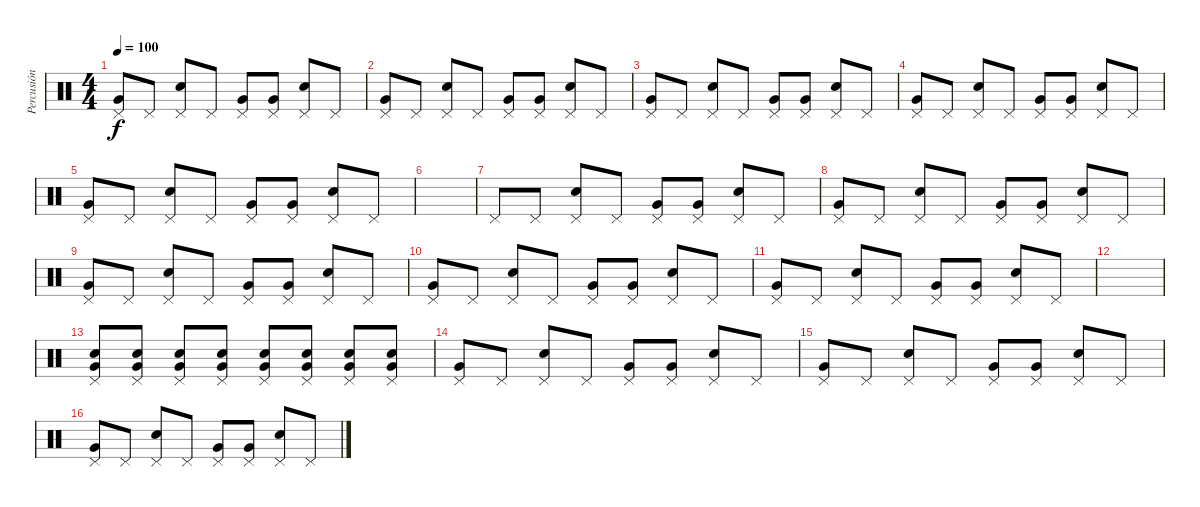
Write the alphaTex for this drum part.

\track ("Percusión" "Percusión") {instrument percussion}
\staff {score}
\articulation defaults
\ts (4 4)
\tempo 100
\clef neutral
\ks c
("Pedal Hi-Hat (hit)" "Very Low Tom (hit)").8{dy f} "Pedal Hi-Hat (hit)".8 ("Pedal Hi-Hat (hit)" "Snare (hit) 2").8 "Pedal Hi-Hat (hit)".8 ("Pedal Hi-Hat (hit)" "Very Low Tom (hit)").8 ("Pedal Hi-Hat (hit)" "Very Low Tom (hit)").8 ("Pedal Hi-Hat (hit)" "Snare (hit) 2").8 "Pedal Hi-Hat (hit)".8 |
("Pedal Hi-Hat (hit)" "Very Low Tom (hit)").8 "Pedal Hi-Hat (hit)".8 ("Pedal Hi-Hat (hit)" "Snare (hit) 2").8 "Pedal Hi-Hat (hit)".8 ("Pedal Hi-Hat (hit)" "Very Low Tom (hit)").8 ("Pedal Hi-Hat (hit)" "Very Low Tom (hit)").8 ("Pedal Hi-Hat (hit)" "Snare (hit) 2").8 "Pedal Hi-Hat (hit)".8 |
("Pedal Hi-Hat (hit)" "Very Low Tom (hit)").8 "Pedal Hi-Hat (hit)".8 ("Pedal Hi-Hat (hit)" "Snare (hit) 2").8 "Pedal Hi-Hat (hit)".8 ("Pedal Hi-Hat (hit)" "Very Low Tom (hit)").8 ("Pedal Hi-Hat (hit)" "Very Low Tom (hit)").8 ("Pedal Hi-Hat (hit)" "Snare (hit) 2").8 "Pedal Hi-Hat (hit)".8 |
("Pedal Hi-Hat (hit)" "Very Low Tom (hit)").8 "Pedal Hi-Hat (hit)".8 ("Pedal Hi-Hat (hit)" "Snare (hit) 2").8 "Pedal Hi-Hat (hit)".8 ("Pedal Hi-Hat (hit)" "Very Low Tom (hit)").8 ("Pedal Hi-Hat (hit)" "Very Low Tom (hit)").8 ("Pedal Hi-Hat (hit)" "Snare (hit) 2").8 "Pedal Hi-Hat (hit)".8 |
("Pedal Hi-Hat (hit)" "Very Low Tom (hit)").8 "Pedal Hi-Hat (hit)".8 ("Pedal Hi-Hat (hit)" "Snare (hit) 2").8 "Pedal Hi-Hat (hit)".8 ("Pedal Hi-Hat (hit)" "Very Low Tom (hit)").8 ("Pedal Hi-Hat (hit)" "Very Low Tom (hit)").8 ("Pedal Hi-Hat (hit)" "Snare (hit) 2").8 "Pedal Hi-Hat (hit)".8 |
|
"Pedal Hi-Hat (hit)".8 "Pedal Hi-Hat (hit)".8 ("Pedal Hi-Hat (hit)" "Snare (hit) 2").8 "Pedal Hi-Hat (hit)".8 ("Pedal Hi-Hat (hit)" "Very Low Tom (hit)").8 ("Pedal Hi-Hat (hit)" "Very Low Tom (hit)").8 ("Pedal Hi-Hat (hit)" "Snare (hit) 2").8 "Pedal Hi-Hat (hit)".8 |
("Pedal Hi-Hat (hit)" "Very Low Tom (hit)").8 "Pedal Hi-Hat (hit)".8 ("Pedal Hi-Hat (hit)" "Snare (hit) 2").8 "Pedal Hi-Hat (hit)".8 ("Pedal Hi-Hat (hit)" "Very Low Tom (hit)").8 ("Pedal Hi-Hat (hit)" "Very Low Tom (hit)").8 ("Pedal Hi-Hat (hit)" "Snare (hit) 2").8 "Pedal Hi-Hat (hit)".8 |
("Pedal Hi-Hat (hit)" "Very Low Tom (hit)").8 "Pedal Hi-Hat (hit)".8 ("Pedal Hi-Hat (hit)" "Snare (hit) 2").8 "Pedal Hi-Hat (hit)".8 ("Pedal Hi-Hat (hit)" "Very Low Tom (hit)").8 ("Pedal Hi-Hat (hit)" "Very Low Tom (hit)").8 ("Pedal Hi-Hat (hit)" "Snare (hit) 2").8 "Pedal Hi-Hat (hit)".8 |
("Pedal Hi-Hat (hit)" "Very Low Tom (hit)").8 "Pedal Hi-Hat (hit)".8 ("Pedal Hi-Hat (hit)" "Snare (hit) 2").8 "Pedal Hi-Hat (hit)".8 ("Pedal Hi-Hat (hit)" "Very Low Tom (hit)").8 ("Pedal Hi-Hat (hit)" "Very Low Tom (hit)").8 ("Pedal Hi-Hat (hit)" "Snare (hit) 2").8 "Pedal Hi-Hat (hit)".8 |
("Pedal Hi-Hat (hit)" "Very Low Tom (hit)").8 "Pedal Hi-Hat (hit)".8 ("Pedal Hi-Hat (hit)" "Snare (hit) 2").8 "Pedal Hi-Hat (hit)".8 ("Pedal Hi-Hat (hit)" "Very Low Tom (hit)").8 ("Pedal Hi-Hat (hit)" "Very Low Tom (hit)").8 ("Pedal Hi-Hat (hit)" "Snare (hit) 2").8 "Pedal Hi-Hat (hit)".8 |
|
("Pedal Hi-Hat (hit)" "Snare (hit) 2" "Very Low Tom (hit)").8 ("Pedal Hi-Hat (hit)" "Snare (hit) 2" "Very Low Tom (hit)").8 ("Pedal Hi-Hat (hit)" "Snare (hit) 2" "Very Low Tom (hit)").8 ("Pedal Hi-Hat (hit)" "Snare (hit) 2" "Very Low Tom (hit)").8 ("Pedal Hi-Hat (hit)" "Snare (hit) 2" "Very Low Tom (hit)").8 ("Pedal Hi-Hat (hit)" "Snare (hit) 2" "Very Low Tom (hit)").8 ("Pedal Hi-Hat (hit)" "Snare (hit) 2" "Very Low Tom (hit)").8 ("Pedal Hi-Hat (hit)" "Snare (hit) 2" "Very Low Tom (hit)").8 |
("Pedal Hi-Hat (hit)" "Very Low Tom (hit)").8 "Pedal Hi-Hat (hit)".8 ("Pedal Hi-Hat (hit)" "Snare (hit) 2").8 "Pedal Hi-Hat (hit)".8 ("Pedal Hi-Hat (hit)" "Very Low Tom (hit)").8 ("Pedal Hi-Hat (hit)" "Very Low Tom (hit)").8 ("Pedal Hi-Hat (hit)" "Snare (hit) 2").8 "Pedal Hi-Hat (hit)".8 |
("Pedal Hi-Hat (hit)" "Very Low Tom (hit)").8 "Pedal Hi-Hat (hit)".8 ("Pedal Hi-Hat (hit)" "Snare (hit) 2").8 "Pedal Hi-Hat (hit)".8 ("Pedal Hi-Hat (hit)" "Very Low Tom (hit)").8 ("Pedal Hi-Hat (hit)" "Very Low Tom (hit)").8 ("Pedal Hi-Hat (hit)" "Snare (hit) 2").8 "Pedal Hi-Hat (hit)".8 |
("Pedal Hi-Hat (hit)" "Very Low Tom (hit)").8 "Pedal Hi-Hat (hit)".8 ("Pedal Hi-Hat (hit)" "Snare (hit) 2").8 "Pedal Hi-Hat (hit)".8 ("Pedal Hi-Hat (hit)" "Very Low Tom (hit)").8 ("Pedal Hi-Hat (hit)" "Very Low Tom (hit)").8 ("Pedal Hi-Hat (hit)" "Snare (hit) 2").8 "Pedal Hi-Hat (hit)".8
